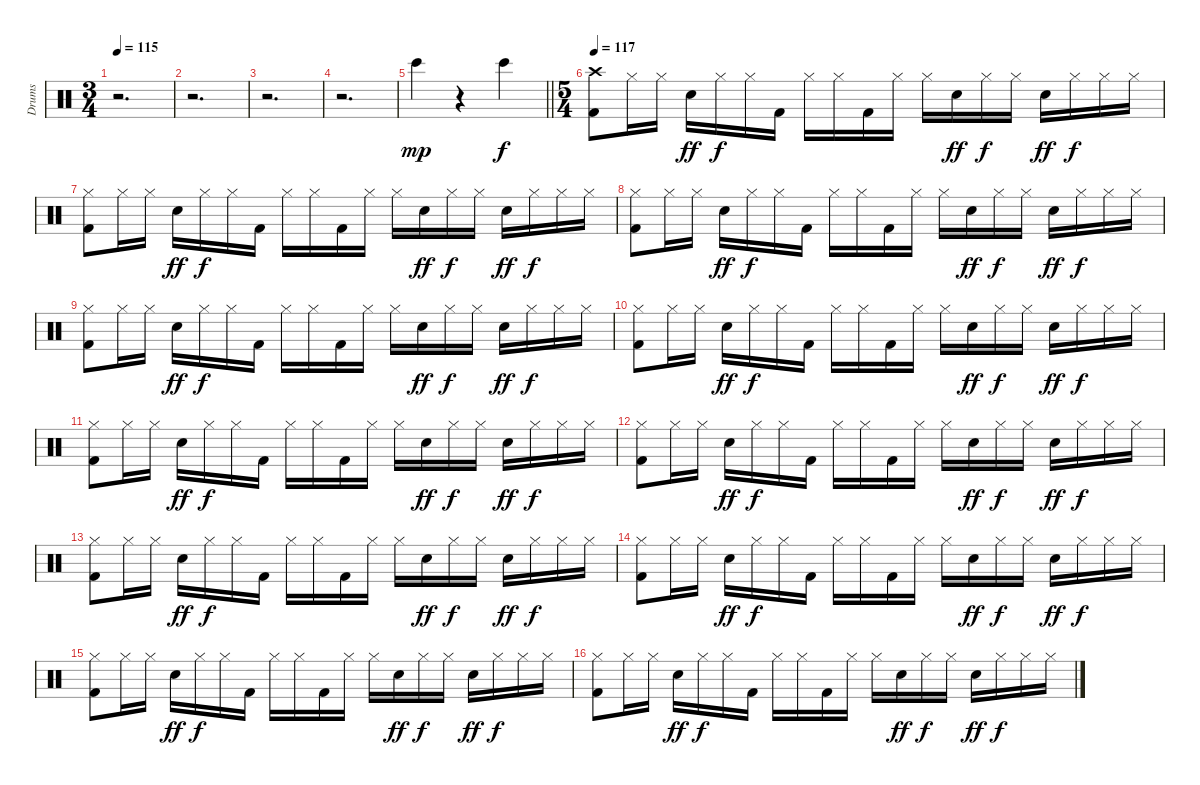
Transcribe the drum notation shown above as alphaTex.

\track ("Drums" "Drums") {instrument percussion}
\staff {score}
\articulation defaults
\ts (3 4)
\tempo 115
\clef neutral
\ks c
r.2{d dy f} |
r.2{d} |
r.2{d} |
r.2{d} |
\barLineRight lightlight "Bongo High (hit)".4{dy mp}
r.4 "Bongo High (hit)".4{dy f} |
\ts (5 4)
\tempo 117
("Kick (hit) 2" "Crash high (hit)").8 "Hi-Hat (closed)".16 "Hi-Hat (closed)".16 "Electric Snare (hit)".16{dy ff} "Hi-Hat (closed)".16{dy f} "Hi-Hat (closed)".16 "Kick (hit) 2".16 "Hi-Hat (closed)".16 "Hi-Hat (closed)".16 "Kick (hit) 2".16 "Hi-Hat (closed)".16 "Hi-Hat (closed)".16 "Electric Snare (hit)".16{dy ff} "Hi-Hat (closed)".16{dy f} "Hi-Hat (closed)".16 "Electric Snare (hit)".16{dy ff} "Hi-Hat (closed)".16{dy f} "Hi-Hat (closed)".16 "Hi-Hat (closed)".16 |
("Kick (hit) 2" "Hi-Hat (closed)").8 "Hi-Hat (closed)".16 "Hi-Hat (closed)".16 "Electric Snare (hit)".16{dy ff} "Hi-Hat (closed)".16{dy f} "Hi-Hat (closed)".16 "Kick (hit) 2".16 "Hi-Hat (closed)".16 "Hi-Hat (closed)".16 "Kick (hit) 2".16 "Hi-Hat (closed)".16 "Hi-Hat (closed)".16 "Electric Snare (hit)".16{dy ff} "Hi-Hat (closed)".16{dy f} "Hi-Hat (closed)".16 "Electric Snare (hit)".16{dy ff} "Hi-Hat (closed)".16{dy f} "Hi-Hat (closed)".16 "Hi-Hat (closed)".16 |
("Kick (hit) 2" "Hi-Hat (closed)").8 "Hi-Hat (closed)".16 "Hi-Hat (closed)".16 "Electric Snare (hit)".16{dy ff} "Hi-Hat (closed)".16{dy f} "Hi-Hat (closed)".16 "Kick (hit) 2".16 "Hi-Hat (closed)".16 "Hi-Hat (closed)".16 "Kick (hit) 2".16 "Hi-Hat (closed)".16 "Hi-Hat (closed)".16 "Electric Snare (hit)".16{dy ff} "Hi-Hat (closed)".16{dy f} "Hi-Hat (closed)".16 "Electric Snare (hit)".16{dy ff} "Hi-Hat (closed)".16{dy f} "Hi-Hat (closed)".16 "Hi-Hat (closed)".16 |
("Kick (hit) 2" "Hi-Hat (closed)").8 "Hi-Hat (closed)".16 "Hi-Hat (closed)".16 "Electric Snare (hit)".16{dy ff} "Hi-Hat (closed)".16{dy f} "Hi-Hat (closed)".16 "Kick (hit) 2".16 "Hi-Hat (closed)".16 "Hi-Hat (closed)".16 "Kick (hit) 2".16 "Hi-Hat (closed)".16 "Hi-Hat (closed)".16 "Electric Snare (hit)".16{dy ff} "Hi-Hat (closed)".16{dy f} "Hi-Hat (closed)".16 "Electric Snare (hit)".16{dy ff} "Hi-Hat (closed)".16{dy f} "Hi-Hat (closed)".16 "Hi-Hat (closed)".16 |
("Kick (hit) 2" "Hi-Hat (closed)").8 "Hi-Hat (closed)".16 "Hi-Hat (closed)".16 "Electric Snare (hit)".16{dy ff} "Hi-Hat (closed)".16{dy f} "Hi-Hat (closed)".16 "Kick (hit) 2".16 "Hi-Hat (closed)".16 "Hi-Hat (closed)".16 "Kick (hit) 2".16 "Hi-Hat (closed)".16 "Hi-Hat (closed)".16 "Electric Snare (hit)".16{dy ff} "Hi-Hat (closed)".16{dy f} "Hi-Hat (closed)".16 "Electric Snare (hit)".16{dy ff} "Hi-Hat (closed)".16{dy f} "Hi-Hat (closed)".16 "Hi-Hat (closed)".16 |
("Kick (hit) 2" "Hi-Hat (closed)").8 "Hi-Hat (closed)".16 "Hi-Hat (closed)".16 "Electric Snare (hit)".16{dy ff} "Hi-Hat (closed)".16{dy f} "Hi-Hat (closed)".16 "Kick (hit) 2".16 "Hi-Hat (closed)".16 "Hi-Hat (closed)".16 "Kick (hit) 2".16 "Hi-Hat (closed)".16 "Hi-Hat (closed)".16 "Electric Snare (hit)".16{dy ff} "Hi-Hat (closed)".16{dy f} "Hi-Hat (closed)".16 "Electric Snare (hit)".16{dy ff} "Hi-Hat (closed)".16{dy f} "Hi-Hat (closed)".16 "Hi-Hat (closed)".16 |
("Kick (hit) 2" "Hi-Hat (closed)").8 "Hi-Hat (closed)".16 "Hi-Hat (closed)".16 "Electric Snare (hit)".16{dy ff} "Hi-Hat (closed)".16{dy f} "Hi-Hat (closed)".16 "Kick (hit) 2".16 "Hi-Hat (closed)".16 "Hi-Hat (closed)".16 "Kick (hit) 2".16 "Hi-Hat (closed)".16 "Hi-Hat (closed)".16 "Electric Snare (hit)".16{dy ff} "Hi-Hat (closed)".16{dy f} "Hi-Hat (closed)".16 "Electric Snare (hit)".16{dy ff} "Hi-Hat (closed)".16{dy f} "Hi-Hat (closed)".16 "Hi-Hat (closed)".16 |
("Kick (hit) 2" "Hi-Hat (closed)").8 "Hi-Hat (closed)".16 "Hi-Hat (closed)".16 "Electric Snare (hit)".16{dy ff} "Hi-Hat (closed)".16{dy f} "Hi-Hat (closed)".16 "Kick (hit) 2".16 "Hi-Hat (closed)".16 "Hi-Hat (closed)".16 "Kick (hit) 2".16 "Hi-Hat (closed)".16 "Hi-Hat (closed)".16 "Electric Snare (hit)".16{dy ff} "Hi-Hat (closed)".16{dy f} "Hi-Hat (closed)".16 "Electric Snare (hit)".16{dy ff} "Hi-Hat (closed)".16{dy f} "Hi-Hat (closed)".16 "Hi-Hat (closed)".16 |
("Kick (hit) 2" "Hi-Hat (closed)").8 "Hi-Hat (closed)".16 "Hi-Hat (closed)".16 "Electric Snare (hit)".16{dy ff} "Hi-Hat (closed)".16{dy f} "Hi-Hat (closed)".16 "Kick (hit) 2".16 "Hi-Hat (closed)".16 "Hi-Hat (closed)".16 "Kick (hit) 2".16 "Hi-Hat (closed)".16 "Hi-Hat (closed)".16 "Electric Snare (hit)".16{dy ff} "Hi-Hat (closed)".16{dy f} "Hi-Hat (closed)".16 "Electric Snare (hit)".16{dy ff} "Hi-Hat (closed)".16{dy f} "Hi-Hat (closed)".16 "Hi-Hat (closed)".16 |
("Kick (hit) 2" "Hi-Hat (closed)").8 "Hi-Hat (closed)".16 "Hi-Hat (closed)".16 "Electric Snare (hit)".16{dy ff} "Hi-Hat (closed)".16{dy f} "Hi-Hat (closed)".16 "Kick (hit) 2".16 "Hi-Hat (closed)".16 "Hi-Hat (closed)".16 "Kick (hit) 2".16 "Hi-Hat (closed)".16 "Hi-Hat (closed)".16 "Electric Snare (hit)".16{dy ff} "Hi-Hat (closed)".16{dy f} "Hi-Hat (closed)".16 "Electric Snare (hit)".16{dy ff} "Hi-Hat (closed)".16{dy f} "Hi-Hat (closed)".16 "Hi-Hat (closed)".16 |
("Kick (hit) 2" "Hi-Hat (closed)").8 "Hi-Hat (closed)".16 "Hi-Hat (closed)".16 "Electric Snare (hit)".16{dy ff} "Hi-Hat (closed)".16{dy f} "Hi-Hat (closed)".16 "Kick (hit) 2".16 "Hi-Hat (closed)".16 "Hi-Hat (closed)".16 "Kick (hit) 2".16 "Hi-Hat (closed)".16 "Hi-Hat (closed)".16 "Electric Snare (hit)".16{dy ff} "Hi-Hat (closed)".16{dy f} "Hi-Hat (closed)".16 "Electric Snare (hit)".16{dy ff} "Hi-Hat (closed)".16{dy f} "Hi-Hat (closed)".16 "Hi-Hat (closed)".16
